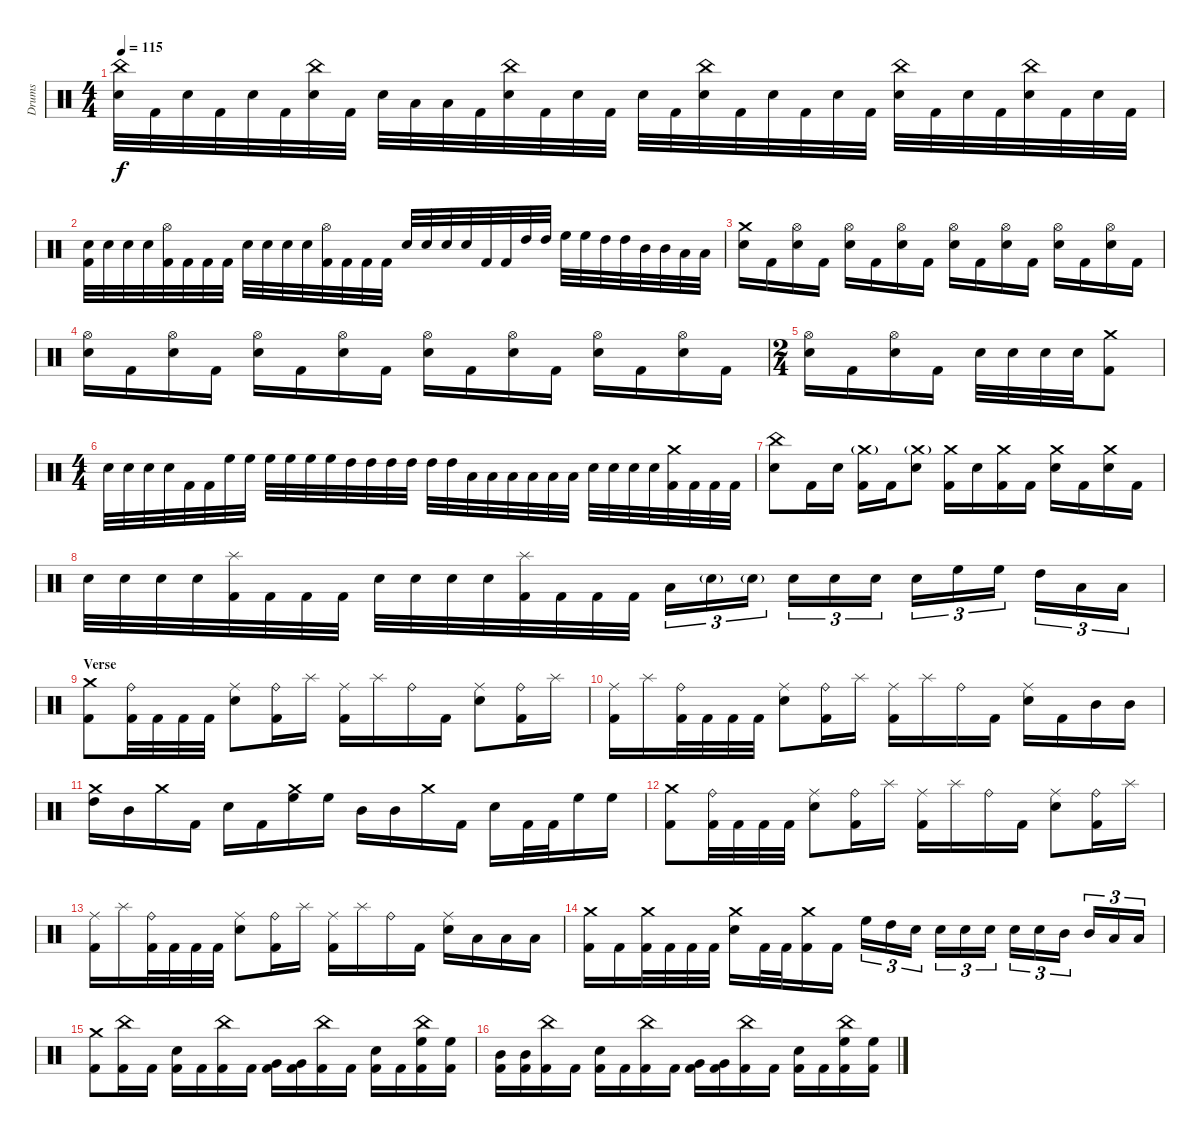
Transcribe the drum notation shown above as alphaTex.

\track ("Drums" "Drums") {instrument percussion}
\staff {score}
\articulation defaults
\ts (4 4)
\tempo 115
\clef neutral
\ks c
("China (hit)" "Snare (hit) 2").32{dy f} "Kick (hit) 2".32 "Snare (hit) 2".32 "Kick (hit) 2".32 "Snare (hit) 2".32 "Kick (hit) 2".32 ("China (hit)" "Snare (hit) 2").32 "Kick (hit) 2".32 "Snare (hit) 2".32 "Low Tom (hit)".32 "Low Tom (hit)".32 "Kick (hit) 2".32 ("China (hit)" "Snare (hit) 2").32 "Kick (hit) 2".32 "Snare (hit) 2".32 "Kick (hit) 2".32 "Snare (hit) 2".32 "Kick (hit) 2".32 ("China (hit)" "Snare (hit) 2").32 "Kick (hit) 2".32 "Snare (hit) 2".32 "Kick (hit) 2".32 "Snare (hit) 2".32 "Kick (hit) 2".32 ("China (hit)" "Snare (hit) 2").32 "Kick (hit) 2".32 "Snare (hit) 2".32 "Kick (hit) 2".32 ("China (hit)" "Snare (hit) 2").32 "Kick (hit) 2".32 "Snare (hit) 2".32 "Kick (hit) 2".32 |
("Snare (hit) 2" "Kick (hit) 2").32 "Snare (hit) 2".32 "Snare (hit) 2".32 "Snare (hit) 2".32 ("Hi-Hat (open)" "Kick (hit) 2").32 "Kick (hit) 2".32 "Kick (hit) 2".32 "Kick (hit) 2".32 "Snare (hit) 2".32 "Snare (hit) 2".32 "Snare (hit) 2".32 "Snare (hit) 2".32 ("Hi-Hat (open)" "Kick (hit) 2").32 "Kick (hit) 2".32 "Kick (hit) 2".32 "Kick (hit) 2".32 "Snare (hit) 2".32 "Snare (hit) 2".32 "Snare (hit) 2".32 "Snare (hit) 2".32 "Kick (hit) 2".32 "Kick (hit) 2".32 "High Tom (hit)".32 "High Tom (hit)".32 "High Floor Tom (hit)".32 "High Floor Tom (hit)".32 "High Tom (hit)".32 "High Tom (hit)".32 "Mid Tom (hit)".32 "Mid Tom (hit)".32 "Low Tom (hit)".32 "Low Tom (hit)".32 |
("Crash medium (hit)" "Snare (hit) 2").16 "Kick (hit) 2".16 ("Hi-Hat (open)" "Snare (hit) 2").16 "Kick (hit) 2".16 ("Hi-Hat (open)" "Snare (hit) 2").16 "Kick (hit) 2".16 ("Hi-Hat (open)" "Snare (hit) 2").16 "Kick (hit) 2".16 ("Hi-Hat (open)" "Snare (hit) 2").16 "Kick (hit) 2".16 ("Hi-Hat (open)" "Snare (hit) 2").16 "Kick (hit) 2".16 ("Hi-Hat (open)" "Snare (hit) 2").16 "Kick (hit) 2".16 ("Hi-Hat (open)" "Snare (hit) 2").16 "Kick (hit) 2".16 |
("Hi-Hat (open)" "Snare (hit) 2").16 "Kick (hit) 2".16 ("Hi-Hat (open)" "Snare (hit) 2").16 "Kick (hit) 2".16 ("Hi-Hat (open)" "Snare (hit) 2").16 "Kick (hit) 2".16 ("Hi-Hat (open)" "Snare (hit) 2").16 "Kick (hit) 2".16 ("Hi-Hat (open)" "Snare (hit) 2").16 "Kick (hit) 2".16 ("Hi-Hat (open)" "Snare (hit) 2").16 "Kick (hit) 2".16 ("Hi-Hat (open)" "Snare (hit) 2").16 "Kick (hit) 2".16 ("Hi-Hat (open)" "Snare (hit) 2").16 "Kick (hit) 2".16 |
\ts (2 4)
("Hi-Hat (open)" "Snare (hit) 2").16 "Kick (hit) 2".16 ("Hi-Hat (open)" "Snare (hit) 2").16 "Kick (hit) 2".16 "Snare (hit) 2".32 "Snare (hit) 2".32 "Snare (hit) 2".32 "Snare (hit) 2".32 ("Crash medium (hit)" "Kick (hit) 2").8 |
\ts (4 4)
"Snare (hit) 2".32 "Snare (hit) 2".32 "Snare (hit) 2".32 "Snare (hit) 2".32 "Kick (hit) 2".32 "Kick (hit) 2".32 "High Floor Tom (hit)".32 "High Floor Tom (hit)".32 "High Floor Tom (hit)".32 "High Floor Tom (hit)".32 "High Floor Tom (hit)".32 "High Floor Tom (hit)".32 "High Tom (hit)".32 "High Tom (hit)".32 "High Tom (hit)".32 "High Tom (hit)".32 "High Tom (hit)".32 "High Tom (hit)".32 "Low Tom (hit)".32 "Low Tom (hit)".32 "Low Tom (hit)".32 "Low Tom (hit)".32 "Low Tom (hit)".32 "Low Tom (hit)".32 "Snare (hit) 2".32 "Snare (hit) 2".32 "Snare (hit) 2".32 "Snare (hit) 2".32 ("Crash medium (hit)" "Kick (hit) 2").32 "Kick (hit) 2".32 "Kick (hit) 2".32 "Kick (hit) 2".32 |
("China (hit)" "Snare (hit) 2").8 "Kick (hit) 2".16 "Snare (hit) 2".16 ("Crash medium (hit)"{g} "Kick (hit) 2").16 "Kick (hit) 2".16 ("Crash medium (hit)"{g} "Snare (hit) 2").8 ("Crash medium (hit)" "Kick (hit) 2").16 "Snare (hit) 2".16 ("Crash medium (hit)" "Kick (hit) 2").16 "Kick (hit) 2".16 ("Crash medium (hit)" "Snare (hit) 2").16 "Kick (hit) 2".16 ("Crash medium (hit)" "Snare (hit) 2").16 "Kick (hit) 2".16 |
"Snare (hit) 2".32 "Snare (hit) 2".32 "Snare (hit) 2".32 "Snare (hit) 2".32 ("Splash (hit)" "Kick (hit) 2").32 "Kick (hit) 2".32 "Kick (hit) 2".32 "Kick (hit) 2".32 "Snare (hit) 2".32 "Snare (hit) 2".32 "Snare (hit) 2".32 "Snare (hit) 2".32 ("Splash (hit)" "Kick (hit) 2").32 "Kick (hit) 2".32 "Kick (hit) 2".32 "Kick (hit) 2".32 "Low Tom (hit)".16{tu (3 2)} "Snare (hit) 2"{g}.16{tu (3 2)} "Snare (hit) 2"{g}.16{tu (3 2)} "Snare (hit) 2".16{tu (3 2)} "Snare (hit) 2".16{tu (3 2)} "Snare (hit) 2".16{tu (3 2)} "Snare (hit) 2".16{tu (3 2)} "High Floor Tom (hit)".16{tu (3 2)} "High Floor Tom (hit)".16{tu (3 2)} "High Tom (hit)".16{tu (3 2)} "Low Tom (hit)".16{tu (3 2)} "Low Tom (hit)".16{tu (3 2)} |
\section ("" "Verse")
("Crash medium (hit)" "Kick (hit) 2").8 ("Ride (bell)" "Kick (hit) 2").32 "Kick (hit) 2".32 "Kick (hit) 2".32 "Kick (hit) 2".32 ("Ride (middle)" "Snare (hit) 2").8 ("Ride (bell)" "Kick (hit) 2").16 "Splash (hit)".16 ("Ride (middle)" "Kick (hit) 2").16 "Splash (hit)".16 "Ride (bell)".16 "Kick (hit) 2".16 ("Ride (middle)" "Snare (hit) 2").8 ("Ride (bell)" "Kick (hit) 2").16 "Splash (hit)".16 |
("Ride (middle)" "Kick (hit) 2").16 "Splash (hit)".16 ("Ride (bell)" "Kick (hit) 2").32 "Kick (hit) 2".32 "Kick (hit) 2".32 "Kick (hit) 2".32 ("Ride (middle)" "Snare (hit) 2").8 ("Ride (bell)" "Kick (hit) 2").16 "Splash (hit)".16 ("Ride (middle)" "Kick (hit) 2").16 "Splash (hit)".16 "Ride (bell)".16 "Kick (hit) 2".16 ("Ride (middle)" "Snare (hit) 2").16 "Kick (hit) 2".16 "Mid Tom (hit)".16 "Mid Tom (hit)".16 |
("Crash medium (hit)" "High Tom (hit)").16 "Mid Tom (hit)".16 "Crash medium (hit)".16 "Kick (hit) 2".16 "Snare (hit) 2".16 "Kick (hit) 2".16 ("Crash medium (hit)" "High Floor Tom (hit)").16 "High Floor Tom (hit)".16 "Mid Tom (hit)".16 "Mid Tom (hit)".16 "Crash medium (hit)".16 "Kick (hit) 2".16 "Snare (hit) 2".16 "Kick (hit) 2".32 "Kick (hit) 2".32 "High Floor Tom (hit)".16 "High Floor Tom (hit)".16 |
("Crash medium (hit)" "Kick (hit) 2").8 ("Ride (bell)" "Kick (hit) 2").32 "Kick (hit) 2".32 "Kick (hit) 2".32 "Kick (hit) 2".32 ("Ride (middle)" "Snare (hit) 2").8 ("Ride (bell)" "Kick (hit) 2").16 "Splash (hit)".16 ("Ride (middle)" "Kick (hit) 2").16 "Splash (hit)".16 "Ride (bell)".16 "Kick (hit) 2".16 ("Ride (middle)" "Snare (hit) 2").8 ("Ride (bell)" "Kick (hit) 2").16 "Splash (hit)".16 |
("Ride (middle)" "Kick (hit) 2").16 "Splash (hit)".16 ("Ride (bell)" "Kick (hit) 2").32 "Kick (hit) 2".32 "Kick (hit) 2".32 "Kick (hit) 2".32 ("Ride (middle)" "Snare (hit) 2").8 ("Ride (bell)" "Kick (hit) 2").16 "Splash (hit)".16 ("Ride (middle)" "Kick (hit) 2").16 "Splash (hit)".16 "Ride (bell)".16 "Kick (hit) 2".16 ("Ride (middle)" "Snare (hit) 2").16 "Low Tom (hit)".16 "Low Tom (hit)".16 "Low Tom (hit)".16 |
("Crash medium (hit)" "Kick (hit) 2").16 "Kick (hit) 2".16 ("Crash medium (hit)" "Kick (hit) 2").32 "Kick (hit) 2".32 "Kick (hit) 2".32 "Kick (hit) 2".32 ("Crash medium (hit)" "Snare (hit) 2").16 "Kick (hit) 2".32 "Kick (hit) 2".32 ("Crash medium (hit)" "Kick (hit) 2").16 "Kick (hit) 2".16 "High Floor Tom (hit)".16{tu (3 2)} "High Tom (hit)".16{tu (3 2)} "Snare (hit) 2".16{tu (3 2)} "Snare (hit) 2".16{tu (3 2)} "Snare (hit) 2".16{tu (3 2)} "Snare (hit) 2".16{tu (3 2)} "Snare (hit) 2".16{tu (3 2)} "Snare (hit) 2".16{tu (3 2)} "Mid Tom (hit)".16{tu (3 2)} "Mid Tom (hit)".16{tu (3 2)} "Low Tom (hit)".16{tu (3 2)} "Low Tom (hit)".16{tu (3 2)} |
("Crash medium (hit)" "Kick (hit) 2").8 ("China (hit)" "Kick (hit) 2").16 "Kick (hit) 2".16 ("Snare (hit) 2" "Kick (hit) 2").16 "Kick (hit) 2".16 ("China (hit)" "Kick (hit) 2").16 "Kick (hit) 2".16 ("Very Low Tom (hit)" "Kick (hit) 2").16 ("Very Low Tom (hit)" "Kick (hit) 2").16 ("China (hit)" "Kick (hit) 2").16 "Kick (hit) 2".16 ("Snare (hit) 2" "Kick (hit) 2").16 "Kick (hit) 2".16 ("China (hit)" "High Floor Tom (hit)" "Kick (hit) 2").16 ("High Floor Tom (hit)" "Kick (hit) 2").16 |
("Mid Tom (hit)" "Kick (hit) 2").16 ("Mid Tom (hit)" "Kick (hit) 2").16 ("China (hit)" "Kick (hit) 2").16 "Kick (hit) 2".16 ("Snare (hit) 2" "Kick (hit) 2").16 "Kick (hit) 2".16 ("China (hit)" "Kick (hit) 2").16 "Kick (hit) 2".16 ("Very Low Tom (hit)" "Kick (hit) 2").16 ("Very Low Tom (hit)" "Kick (hit) 2").16 ("China (hit)" "Kick (hit) 2").16 "Kick (hit) 2".16 ("Snare (hit) 2" "Kick (hit) 2").16 "Kick (hit) 2".16 ("China (hit)" "High Floor Tom (hit)" "Kick (hit) 2").16 ("High Floor Tom (hit)" "Kick (hit) 2").16
